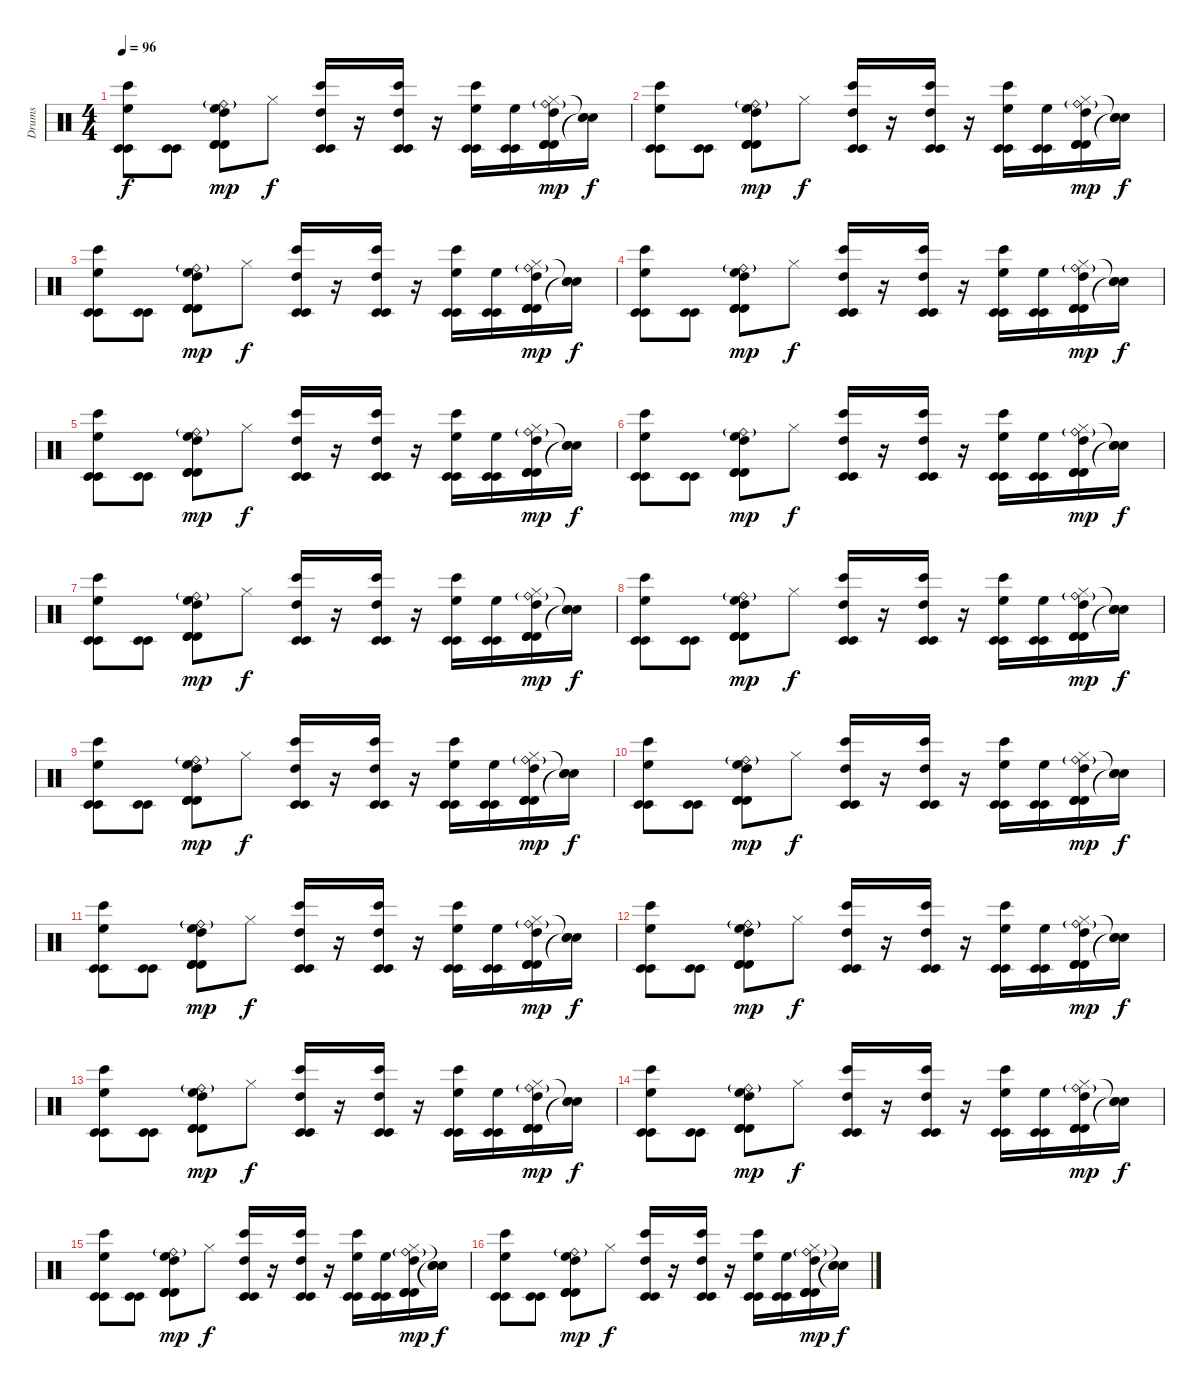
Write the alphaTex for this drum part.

\track ("Drums" "Drums") {instrument percussion}
\staff {score}
\articulation defaults
\ts (4 4)
\tempo 96
\clef neutral
\ks c
("Timbale low (hit)" "Timbale low (hit)" "High Floor Tom (hit)" "Bongo High (hit)").8{dy f} ("Timbale low (hit)" "Timbale low (hit)").8 ("Timbale high (hit)" "Timbale high (hit)" "Timbale high (hit)" "High Tom (hit)" "High Floor Tom (hit)" "Ride (bell)"{g}).8{dy mp} "Hi-Hat (closed)".8{dy f} ("Timbale low (hit)" "Timbale low (hit)" "High Tom (hit)" "Bongo High (hit)").16 r.16 ("Timbale low (hit)" "Timbale low (hit)" "High Tom (hit)" "Bongo High (hit)").16 r.16 ("Timbale low (hit)" "Timbale low (hit)" "High Floor Tom (hit)" "Bongo High (hit)").16 ("Timbale low (hit)" "Timbale low (hit)" "High Floor Tom (hit)").16 ("Hi-Hat (closed)" "Timbale high (hit)" "Timbale high (hit)" "Timbale high (hit)" "High Tom (hit)" "Ride (bell)"{g}).16{dy mp} ("Snare (hit)"{t} "Snare (hit)"{t} "Snare (hit)"{t}).16{dy f} |
("Timbale low (hit)" "Timbale low (hit)" "High Floor Tom (hit)" "Bongo High (hit)").8 ("Timbale low (hit)" "Timbale low (hit)").8 ("Timbale high (hit)" "Timbale high (hit)" "Timbale high (hit)" "High Tom (hit)" "High Floor Tom (hit)" "Ride (bell)"{g}).8{dy mp} "Hi-Hat (closed)".8{dy f} ("Timbale low (hit)" "Timbale low (hit)" "High Tom (hit)" "Bongo High (hit)").16 r.16 ("Timbale low (hit)" "Timbale low (hit)" "High Tom (hit)" "Bongo High (hit)").16 r.16 ("Timbale low (hit)" "Timbale low (hit)" "High Floor Tom (hit)" "Bongo High (hit)").16 ("Timbale low (hit)" "Timbale low (hit)" "High Floor Tom (hit)").16 ("Hi-Hat (closed)" "Timbale high (hit)" "Timbale high (hit)" "Timbale high (hit)" "High Tom (hit)" "Ride (bell)"{g}).16{dy mp} ("Snare (hit)"{t} "Snare (hit)"{t} "Snare (hit)"{t}).16{dy f} |
("Timbale low (hit)" "Timbale low (hit)" "High Floor Tom (hit)" "Bongo High (hit)").8 ("Timbale low (hit)" "Timbale low (hit)").8 ("Timbale high (hit)" "Timbale high (hit)" "Timbale high (hit)" "High Tom (hit)" "High Floor Tom (hit)" "Ride (bell)"{g}).8{dy mp} "Hi-Hat (closed)".8{dy f} ("Timbale low (hit)" "Timbale low (hit)" "High Tom (hit)" "Bongo High (hit)").16 r.16 ("Timbale low (hit)" "Timbale low (hit)" "High Tom (hit)" "Bongo High (hit)").16 r.16 ("Timbale low (hit)" "Timbale low (hit)" "High Floor Tom (hit)" "Bongo High (hit)").16 ("Timbale low (hit)" "Timbale low (hit)" "High Floor Tom (hit)").16 ("Hi-Hat (closed)" "Timbale high (hit)" "Timbale high (hit)" "Timbale high (hit)" "High Tom (hit)" "Ride (bell)"{g}).16{dy mp} ("Snare (hit)"{t} "Snare (hit)"{t} "Snare (hit)"{t}).16{dy f} |
("Timbale low (hit)" "Timbale low (hit)" "High Floor Tom (hit)" "Bongo High (hit)").8 ("Timbale low (hit)" "Timbale low (hit)").8 ("Timbale high (hit)" "Timbale high (hit)" "Timbale high (hit)" "High Tom (hit)" "High Floor Tom (hit)" "Ride (bell)"{g}).8{dy mp} "Hi-Hat (closed)".8{dy f} ("Timbale low (hit)" "Timbale low (hit)" "High Tom (hit)" "Bongo High (hit)").16 r.16 ("Timbale low (hit)" "Timbale low (hit)" "High Tom (hit)" "Bongo High (hit)").16 r.16 ("Timbale low (hit)" "Timbale low (hit)" "High Floor Tom (hit)" "Bongo High (hit)").16 ("Timbale low (hit)" "Timbale low (hit)" "High Floor Tom (hit)").16 ("Hi-Hat (closed)" "Timbale high (hit)" "Timbale high (hit)" "Timbale high (hit)" "High Tom (hit)" "Ride (bell)"{g}).16{dy mp} ("Snare (hit)"{t} "Snare (hit)"{t} "Snare (hit)"{t}).16{dy f} |
("Timbale low (hit)" "Timbale low (hit)" "High Floor Tom (hit)" "Bongo High (hit)").8 ("Timbale low (hit)" "Timbale low (hit)").8 ("Timbale high (hit)" "Timbale high (hit)" "Timbale high (hit)" "High Tom (hit)" "High Floor Tom (hit)" "Ride (bell)"{g}).8{dy mp} "Hi-Hat (closed)".8{dy f} ("Timbale low (hit)" "Timbale low (hit)" "High Tom (hit)" "Bongo High (hit)").16 r.16 ("Timbale low (hit)" "Timbale low (hit)" "High Tom (hit)" "Bongo High (hit)").16 r.16 ("Timbale low (hit)" "Timbale low (hit)" "High Floor Tom (hit)" "Bongo High (hit)").16 ("Timbale low (hit)" "Timbale low (hit)" "High Floor Tom (hit)").16 ("Hi-Hat (closed)" "Timbale high (hit)" "Timbale high (hit)" "Timbale high (hit)" "High Tom (hit)" "Ride (bell)"{g}).16{dy mp} ("Snare (hit)"{t} "Snare (hit)"{t} "Snare (hit)"{t}).16{dy f} |
("Timbale low (hit)" "Timbale low (hit)" "High Floor Tom (hit)" "Bongo High (hit)").8 ("Timbale low (hit)" "Timbale low (hit)").8 ("Timbale high (hit)" "Timbale high (hit)" "Timbale high (hit)" "High Tom (hit)" "High Floor Tom (hit)" "Ride (bell)"{g}).8{dy mp} "Hi-Hat (closed)".8{dy f} ("Timbale low (hit)" "Timbale low (hit)" "High Tom (hit)" "Bongo High (hit)").16 r.16 ("Timbale low (hit)" "Timbale low (hit)" "High Tom (hit)" "Bongo High (hit)").16 r.16 ("Timbale low (hit)" "Timbale low (hit)" "High Floor Tom (hit)" "Bongo High (hit)").16 ("Timbale low (hit)" "Timbale low (hit)" "High Floor Tom (hit)").16 ("Hi-Hat (closed)" "Timbale high (hit)" "Timbale high (hit)" "Timbale high (hit)" "High Tom (hit)" "Ride (bell)"{g}).16{dy mp} ("Snare (hit)"{t} "Snare (hit)"{t} "Snare (hit)"{t}).16{dy f} |
("Timbale low (hit)" "Timbale low (hit)" "High Floor Tom (hit)" "Bongo High (hit)").8 ("Timbale low (hit)" "Timbale low (hit)").8 ("Timbale high (hit)" "Timbale high (hit)" "Timbale high (hit)" "High Tom (hit)" "High Floor Tom (hit)" "Ride (bell)"{g}).8{dy mp} "Hi-Hat (closed)".8{dy f} ("Timbale low (hit)" "Timbale low (hit)" "High Tom (hit)" "Bongo High (hit)").16 r.16 ("Timbale low (hit)" "Timbale low (hit)" "High Tom (hit)" "Bongo High (hit)").16 r.16 ("Timbale low (hit)" "Timbale low (hit)" "High Floor Tom (hit)" "Bongo High (hit)").16 ("Timbale low (hit)" "Timbale low (hit)" "High Floor Tom (hit)").16 ("Hi-Hat (closed)" "Timbale high (hit)" "Timbale high (hit)" "Timbale high (hit)" "High Tom (hit)" "Ride (bell)"{g}).16{dy mp} ("Snare (hit)"{t} "Snare (hit)"{t} "Snare (hit)"{t}).16{dy f} |
("Timbale low (hit)" "Timbale low (hit)" "High Floor Tom (hit)" "Bongo High (hit)").8 ("Timbale low (hit)" "Timbale low (hit)").8 ("Timbale high (hit)" "Timbale high (hit)" "Timbale high (hit)" "High Tom (hit)" "High Floor Tom (hit)" "Ride (bell)"{g}).8{dy mp} "Hi-Hat (closed)".8{dy f} ("Timbale low (hit)" "Timbale low (hit)" "High Tom (hit)" "Bongo High (hit)").16 r.16 ("Timbale low (hit)" "Timbale low (hit)" "High Tom (hit)" "Bongo High (hit)").16 r.16 ("Timbale low (hit)" "Timbale low (hit)" "High Floor Tom (hit)" "Bongo High (hit)").16 ("Timbale low (hit)" "Timbale low (hit)" "High Floor Tom (hit)").16 ("Hi-Hat (closed)" "Timbale high (hit)" "Timbale high (hit)" "Timbale high (hit)" "High Tom (hit)" "Ride (bell)"{g}).16{dy mp} ("Snare (hit)"{t} "Snare (hit)"{t} "Snare (hit)"{t}).16{dy f} |
("Timbale low (hit)" "Timbale low (hit)" "High Floor Tom (hit)" "Bongo High (hit)").8 ("Timbale low (hit)" "Timbale low (hit)").8 ("Timbale high (hit)" "Timbale high (hit)" "Timbale high (hit)" "High Tom (hit)" "High Floor Tom (hit)" "Ride (bell)"{g}).8{dy mp} "Hi-Hat (closed)".8{dy f} ("Timbale low (hit)" "Timbale low (hit)" "High Tom (hit)" "Bongo High (hit)").16 r.16 ("Timbale low (hit)" "Timbale low (hit)" "High Tom (hit)" "Bongo High (hit)").16 r.16 ("Timbale low (hit)" "Timbale low (hit)" "High Floor Tom (hit)" "Bongo High (hit)").16 ("Timbale low (hit)" "Timbale low (hit)" "High Floor Tom (hit)").16 ("Hi-Hat (closed)" "Timbale high (hit)" "Timbale high (hit)" "Timbale high (hit)" "High Tom (hit)" "Ride (bell)"{g}).16{dy mp} ("Snare (hit)"{t} "Snare (hit)"{t} "Snare (hit)"{t}).16{dy f} |
("Timbale low (hit)" "Timbale low (hit)" "High Floor Tom (hit)" "Bongo High (hit)").8 ("Timbale low (hit)" "Timbale low (hit)").8 ("Timbale high (hit)" "Timbale high (hit)" "Timbale high (hit)" "High Tom (hit)" "High Floor Tom (hit)" "Ride (bell)"{g}).8{dy mp} "Hi-Hat (closed)".8{dy f} ("Timbale low (hit)" "Timbale low (hit)" "High Tom (hit)" "Bongo High (hit)").16 r.16 ("Timbale low (hit)" "Timbale low (hit)" "High Tom (hit)" "Bongo High (hit)").16 r.16 ("Timbale low (hit)" "Timbale low (hit)" "High Floor Tom (hit)" "Bongo High (hit)").16 ("Timbale low (hit)" "Timbale low (hit)" "High Floor Tom (hit)").16 ("Hi-Hat (closed)" "Timbale high (hit)" "Timbale high (hit)" "Timbale high (hit)" "High Tom (hit)" "Ride (bell)"{g}).16{dy mp} ("Snare (hit)"{t} "Snare (hit)"{t} "Snare (hit)"{t}).16{dy f} |
("Timbale low (hit)" "Timbale low (hit)" "High Floor Tom (hit)" "Bongo High (hit)").8 ("Timbale low (hit)" "Timbale low (hit)").8 ("Timbale high (hit)" "Timbale high (hit)" "Timbale high (hit)" "High Tom (hit)" "High Floor Tom (hit)" "Ride (bell)"{g}).8{dy mp} "Hi-Hat (closed)".8{dy f} ("Timbale low (hit)" "Timbale low (hit)" "High Tom (hit)" "Bongo High (hit)").16 r.16 ("Timbale low (hit)" "Timbale low (hit)" "High Tom (hit)" "Bongo High (hit)").16 r.16 ("Timbale low (hit)" "Timbale low (hit)" "High Floor Tom (hit)" "Bongo High (hit)").16 ("Timbale low (hit)" "Timbale low (hit)" "High Floor Tom (hit)").16 ("Hi-Hat (closed)" "Timbale high (hit)" "Timbale high (hit)" "Timbale high (hit)" "High Tom (hit)" "Ride (bell)"{g}).16{dy mp} ("Snare (hit)"{t} "Snare (hit)"{t} "Snare (hit)"{t}).16{dy f} |
("Timbale low (hit)" "Timbale low (hit)" "High Floor Tom (hit)" "Bongo High (hit)").8 ("Timbale low (hit)" "Timbale low (hit)").8 ("Timbale high (hit)" "Timbale high (hit)" "Timbale high (hit)" "High Tom (hit)" "High Floor Tom (hit)" "Ride (bell)"{g}).8{dy mp} "Hi-Hat (closed)".8{dy f} ("Timbale low (hit)" "Timbale low (hit)" "High Tom (hit)" "Bongo High (hit)").16 r.16 ("Timbale low (hit)" "Timbale low (hit)" "High Tom (hit)" "Bongo High (hit)").16 r.16 ("Timbale low (hit)" "Timbale low (hit)" "High Floor Tom (hit)" "Bongo High (hit)").16 ("Timbale low (hit)" "Timbale low (hit)" "High Floor Tom (hit)").16 ("Hi-Hat (closed)" "Timbale high (hit)" "Timbale high (hit)" "Timbale high (hit)" "High Tom (hit)" "Ride (bell)"{g}).16{dy mp} ("Snare (hit)"{t} "Snare (hit)"{t} "Snare (hit)"{t}).16{dy f} |
("Timbale low (hit)" "Timbale low (hit)" "High Floor Tom (hit)" "Bongo High (hit)").8 ("Timbale low (hit)" "Timbale low (hit)").8 ("Timbale high (hit)" "Timbale high (hit)" "Timbale high (hit)" "High Tom (hit)" "High Floor Tom (hit)" "Ride (bell)"{g}).8{dy mp} "Hi-Hat (closed)".8{dy f} ("Timbale low (hit)" "Timbale low (hit)" "High Tom (hit)" "Bongo High (hit)").16 r.16 ("Timbale low (hit)" "Timbale low (hit)" "High Tom (hit)" "Bongo High (hit)").16 r.16 ("Timbale low (hit)" "Timbale low (hit)" "High Floor Tom (hit)" "Bongo High (hit)").16 ("Timbale low (hit)" "Timbale low (hit)" "High Floor Tom (hit)").16 ("Hi-Hat (closed)" "Timbale high (hit)" "Timbale high (hit)" "Timbale high (hit)" "High Tom (hit)" "Ride (bell)"{g}).16{dy mp} ("Snare (hit)"{t} "Snare (hit)"{t} "Snare (hit)"{t}).16{dy f} |
("Timbale low (hit)" "Timbale low (hit)" "High Floor Tom (hit)" "Bongo High (hit)").8 ("Timbale low (hit)" "Timbale low (hit)").8 ("Timbale high (hit)" "Timbale high (hit)" "Timbale high (hit)" "High Tom (hit)" "High Floor Tom (hit)" "Ride (bell)"{g}).8{dy mp} "Hi-Hat (closed)".8{dy f} ("Timbale low (hit)" "Timbale low (hit)" "High Tom (hit)" "Bongo High (hit)").16 r.16 ("Timbale low (hit)" "Timbale low (hit)" "High Tom (hit)" "Bongo High (hit)").16 r.16 ("Timbale low (hit)" "Timbale low (hit)" "High Floor Tom (hit)" "Bongo High (hit)").16 ("Timbale low (hit)" "Timbale low (hit)" "High Floor Tom (hit)").16 ("Hi-Hat (closed)" "Timbale high (hit)" "Timbale high (hit)" "Timbale high (hit)" "High Tom (hit)" "Ride (bell)"{g}).16{dy mp} ("Snare (hit)"{t} "Snare (hit)"{t} "Snare (hit)"{t}).16{dy f} |
("Timbale low (hit)" "Timbale low (hit)" "High Floor Tom (hit)" "Bongo High (hit)").8 ("Timbale low (hit)" "Timbale low (hit)").8 ("Timbale high (hit)" "Timbale high (hit)" "Timbale high (hit)" "High Tom (hit)" "High Floor Tom (hit)" "Ride (bell)"{g}).8{dy mp} "Hi-Hat (closed)".8{dy f} ("Timbale low (hit)" "Timbale low (hit)" "High Tom (hit)" "Bongo High (hit)").16 r.16 ("Timbale low (hit)" "Timbale low (hit)" "High Tom (hit)" "Bongo High (hit)").16 r.16 ("Timbale low (hit)" "Timbale low (hit)" "High Floor Tom (hit)" "Bongo High (hit)").16 ("Timbale low (hit)" "Timbale low (hit)" "High Floor Tom (hit)").16 ("Hi-Hat (closed)" "Timbale high (hit)" "Timbale high (hit)" "Timbale high (hit)" "High Tom (hit)" "Ride (bell)"{g}).16{dy mp} ("Snare (hit)"{t} "Snare (hit)"{t} "Snare (hit)"{t}).16{dy f} |
("Timbale low (hit)" "Timbale low (hit)" "High Floor Tom (hit)" "Bongo High (hit)").8 ("Timbale low (hit)" "Timbale low (hit)").8 ("Timbale high (hit)" "Timbale high (hit)" "Timbale high (hit)" "High Tom (hit)" "High Floor Tom (hit)" "Ride (bell)"{g}).8{dy mp} "Hi-Hat (closed)".8{dy f} ("Timbale low (hit)" "Timbale low (hit)" "High Tom (hit)" "Bongo High (hit)").16 r.16 ("Timbale low (hit)" "Timbale low (hit)" "High Tom (hit)" "Bongo High (hit)").16 r.16 ("Timbale low (hit)" "Timbale low (hit)" "High Floor Tom (hit)" "Bongo High (hit)").16 ("Timbale low (hit)" "Timbale low (hit)" "High Floor Tom (hit)").16 ("Hi-Hat (closed)" "Timbale high (hit)" "Timbale high (hit)" "Timbale high (hit)" "High Tom (hit)" "Ride (bell)"{g}).16{dy mp} ("Snare (hit)"{t} "Snare (hit)"{t} "Snare (hit)"{t}).16{dy f}
